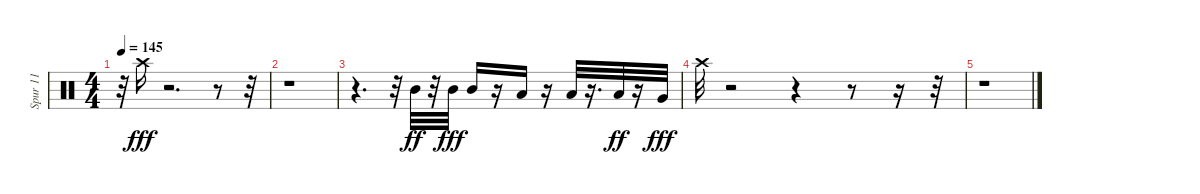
\track ("Spur 11" "Spur 11") {instrument percussion}
\staff {score}
\articulation defaults
\ts (4 4)
\tempo 145
\clef neutral
\ks c
r.32{dy fff} "Crash high (hit)".16 r.2{d} r.8 r.32 |
r.1 |
r.4{d} r.32 "Mid Tom (hit)".32{dy ff} r.32 "Mid Tom (hit)".32{dy fff} "Mid Tom (hit)".16 r.16 "Low Tom (hit)".16 r.16 "Low Tom (hit)".32 r.16{d} "Low Tom (hit)".32{dy ff} r.16 "Very Low Tom (hit)".32{dy fff} |
"Crash high (hit)".32 r.2 r.4 r.8 r.16 r.32 |
r.1
